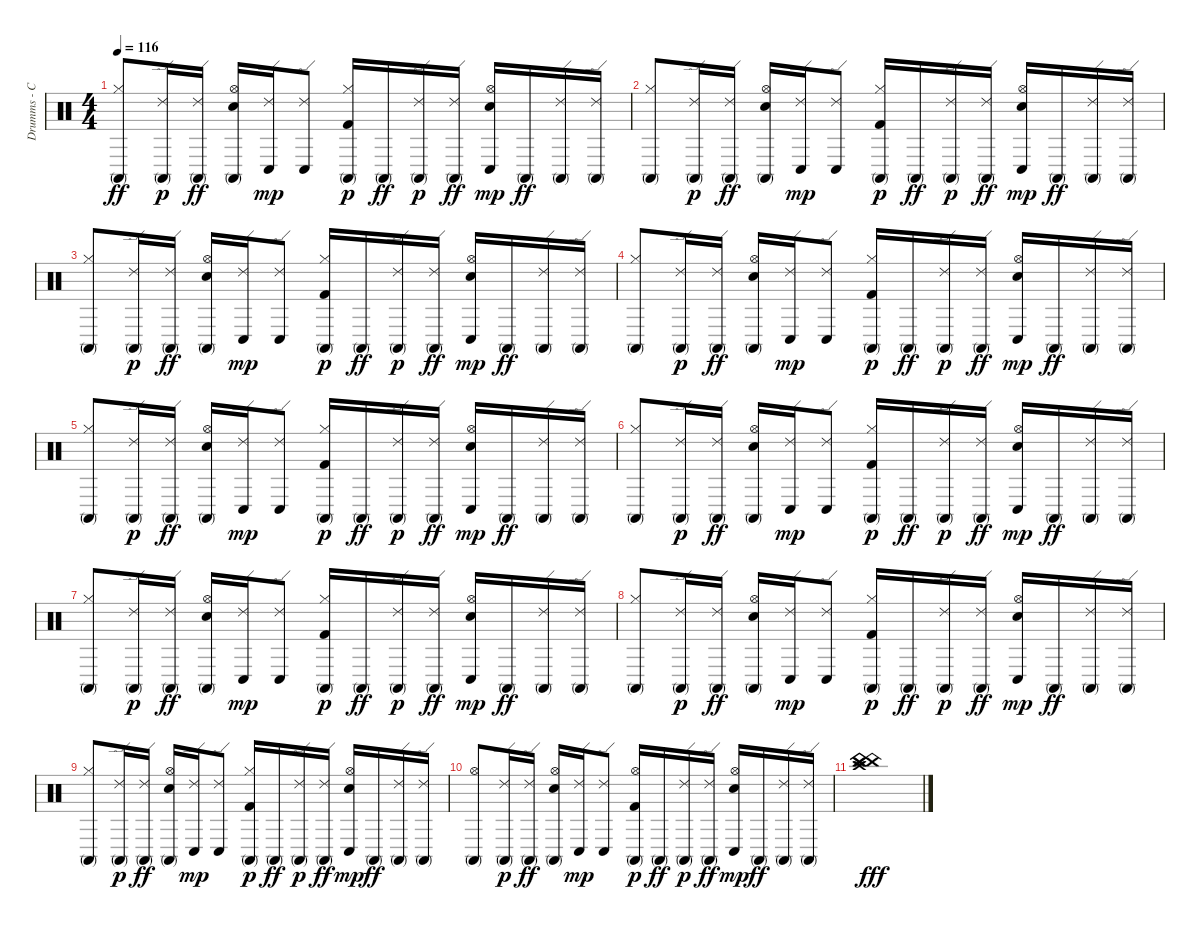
\track ("Drumms - Conga" "Drumms - C") {instrument percussion}
\staff {score}
\articulation defaults
\ts (4 4)
\tempo 116
\clef neutral
\ks c
("Conga high (mute)" "Hi-Hat (closed)").8{dy ff} ("Conga high (mute)" "Ride (edge) 2").16{dy p} ("Conga high (mute)" "Ride (edge) 2").16{dy ff} ("Conga high (mute)" "Snare (hit) 2" "Hi-Hat (open)").16 ("Conga low (hit)" "Ride (edge) 2").16{dy mp} ("Conga low (hit)" "Ride (edge) 2").8 ("Conga high (mute)" "Kick (hit) 2" "Hi-Hat (closed)").16{dy p} "Conga high (mute)".16{dy ff} ("Conga high (mute)" "Ride (edge) 2").16{dy p} ("Conga high (mute)" "Ride (edge) 2").16{dy ff} ("Conga low (hit)" "Snare (hit) 2" "Hi-Hat (open)").16{dy mp} "Conga high (mute)".16{dy ff} ("Conga high (mute)" "Ride (edge) 2").16 ("Conga high (mute)" "Ride (edge) 2").16 |
("Conga high (mute)" "Hi-Hat (closed)").8 ("Conga high (mute)" "Ride (edge) 2").16{dy p} ("Conga high (mute)" "Ride (edge) 2").16{dy ff} ("Conga high (mute)" "Snare (hit) 2" "Hi-Hat (open)").16 ("Conga low (hit)" "Ride (edge) 2").16{dy mp} ("Conga low (hit)" "Ride (edge) 2").8 ("Conga high (mute)" "Kick (hit) 2" "Hi-Hat (closed)").16{dy p} "Conga high (mute)".16{dy ff} ("Conga high (mute)" "Ride (edge) 2").16{dy p} ("Conga high (mute)" "Ride (edge) 2").16{dy ff} ("Conga low (hit)" "Snare (hit) 2" "Hi-Hat (open)").16{dy mp} "Conga high (mute)".16{dy ff} ("Conga high (mute)" "Ride (edge) 2").16 ("Conga high (mute)" "Ride (edge) 2").16 |
("Conga high (mute)" "Hi-Hat (closed)").8 ("Conga high (mute)" "Ride (edge) 2").16{dy p} ("Conga high (mute)" "Ride (edge) 2").16{dy ff} ("Conga high (mute)" "Snare (hit) 2" "Hi-Hat (open)").16 ("Conga low (hit)" "Ride (edge) 2").16{dy mp} ("Conga low (hit)" "Ride (edge) 2").8 ("Conga high (mute)" "Kick (hit) 2" "Hi-Hat (closed)").16{dy p} "Conga high (mute)".16{dy ff} ("Conga high (mute)" "Ride (edge) 2").16{dy p} ("Conga high (mute)" "Ride (edge) 2").16{dy ff} ("Conga low (hit)" "Snare (hit) 2" "Hi-Hat (open)").16{dy mp} "Conga high (mute)".16{dy ff} ("Conga high (mute)" "Ride (edge) 2").16 ("Conga high (mute)" "Ride (edge) 2").16 |
("Conga high (mute)" "Hi-Hat (closed)").8 ("Conga high (mute)" "Ride (edge) 2").16{dy p} ("Conga high (mute)" "Ride (edge) 2").16{dy ff} ("Conga high (mute)" "Snare (hit) 2" "Hi-Hat (open)").16 ("Conga low (hit)" "Ride (edge) 2").16{dy mp} ("Conga low (hit)" "Ride (edge) 2").8 ("Conga high (mute)" "Kick (hit) 2" "Hi-Hat (closed)").16{dy p} "Conga high (mute)".16{dy ff} ("Conga high (mute)" "Ride (edge) 2").16{dy p} ("Conga high (mute)" "Ride (edge) 2").16{dy ff} ("Conga low (hit)" "Snare (hit) 2" "Hi-Hat (open)").16{dy mp} "Conga high (mute)".16{dy ff} ("Conga high (mute)" "Ride (edge) 2").16 ("Conga high (mute)" "Ride (edge) 2").16 |
("Conga high (mute)" "Hi-Hat (closed)").8 ("Conga high (mute)" "Ride (edge) 2").16{dy p} ("Conga high (mute)" "Ride (edge) 2").16{dy ff} ("Conga high (mute)" "Snare (hit) 2" "Hi-Hat (open)").16 ("Conga low (hit)" "Ride (edge) 2").16{dy mp} ("Conga low (hit)" "Ride (edge) 2").8 ("Conga high (mute)" "Kick (hit) 2" "Hi-Hat (closed)").16{dy p} "Conga high (mute)".16{dy ff} ("Conga high (mute)" "Ride (edge) 2").16{dy p} ("Conga high (mute)" "Ride (edge) 2").16{dy ff} ("Conga low (hit)" "Snare (hit) 2" "Hi-Hat (open)").16{dy mp} "Conga high (mute)".16{dy ff} ("Conga high (mute)" "Ride (edge) 2").16 ("Conga high (mute)" "Ride (edge) 2").16 |
("Conga high (mute)" "Hi-Hat (closed)").8 ("Conga high (mute)" "Ride (edge) 2").16{dy p} ("Conga high (mute)" "Ride (edge) 2").16{dy ff} ("Conga high (mute)" "Snare (hit) 2" "Hi-Hat (open)").16 ("Conga low (hit)" "Ride (edge) 2").16{dy mp} ("Conga low (hit)" "Ride (edge) 2").8 ("Conga high (mute)" "Kick (hit) 2" "Hi-Hat (closed)").16{dy p} "Conga high (mute)".16{dy ff} ("Conga high (mute)" "Ride (edge) 2").16{dy p} ("Conga high (mute)" "Ride (edge) 2").16{dy ff} ("Conga low (hit)" "Snare (hit) 2" "Hi-Hat (open)").16{dy mp} "Conga high (mute)".16{dy ff} ("Conga high (mute)" "Ride (edge) 2").16 ("Conga high (mute)" "Ride (edge) 2").16 |
("Conga high (mute)" "Hi-Hat (closed)").8 ("Conga high (mute)" "Ride (edge) 2").16{dy p} ("Conga high (mute)" "Ride (edge) 2").16{dy ff} ("Conga high (mute)" "Snare (hit) 2" "Hi-Hat (open)").16 ("Conga low (hit)" "Ride (edge) 2").16{dy mp} ("Conga low (hit)" "Ride (edge) 2").8 ("Conga high (mute)" "Kick (hit) 2" "Hi-Hat (closed)").16{dy p} "Conga high (mute)".16{dy ff} ("Conga high (mute)" "Ride (edge) 2").16{dy p} ("Conga high (mute)" "Ride (edge) 2").16{dy ff} ("Conga low (hit)" "Snare (hit) 2" "Hi-Hat (open)").16{dy mp} "Conga high (mute)".16{dy ff} ("Conga high (mute)" "Ride (edge) 2").16 ("Conga high (mute)" "Ride (edge) 2").16 |
("Conga high (mute)" "Hi-Hat (closed)").8 ("Conga high (mute)" "Ride (edge) 2").16{dy p} ("Conga high (mute)" "Ride (edge) 2").16{dy ff} ("Conga high (mute)" "Snare (hit) 2" "Hi-Hat (open)").16 ("Conga low (hit)" "Ride (edge) 2").16{dy mp} ("Conga low (hit)" "Ride (edge) 2").8 ("Conga high (mute)" "Kick (hit) 2" "Hi-Hat (closed)").16{dy p} "Conga high (mute)".16{dy ff} ("Conga high (mute)" "Ride (edge) 2").16{dy p} ("Conga high (mute)" "Ride (edge) 2").16{dy ff} ("Conga low (hit)" "Snare (hit) 2" "Hi-Hat (open)").16{dy mp} "Conga high (mute)".16{dy ff} ("Conga high (mute)" "Ride (edge) 2").16 ("Conga high (mute)" "Ride (edge) 2").16 |
\section ("" "")
("Conga high (mute)" "Hi-Hat (closed)").8 ("Conga high (mute)" "Ride (edge) 2").16{dy p} ("Conga high (mute)" "Ride (edge) 2").16{dy ff} ("Conga high (mute)" "Snare (hit) 2" "Hi-Hat (open)").16 ("Conga low (hit)" "Ride (edge) 2").16{dy mp} ("Conga low (hit)" "Ride (edge) 2").8 ("Conga high (mute)" "Kick (hit) 2" "Hi-Hat (closed)").16{dy p} "Conga high (mute)".16{dy ff} ("Conga high (mute)" "Ride (edge) 2").16{dy p} ("Conga high (mute)" "Ride (edge) 2").16{dy ff} ("Conga low (hit)" "Snare (hit) 2" "Hi-Hat (open)").16{dy mp} "Conga high (mute)".16{dy ff} ("Conga high (mute)" "Ride (edge) 2").16 ("Conga high (mute)" "Ride (edge) 2").16 |
("Conga high (mute)" "Hi-Hat (open)").8 ("Conga high (mute)" "Ride (edge) 2").16{dy p} ("Conga high (mute)" "Ride (edge) 2").16{dy ff} ("Conga high (mute)" "Snare (hit) 2" "Hi-Hat (open)").16 ("Conga low (hit)" "Ride (edge) 2").16{dy mp} ("Conga low (hit)" "Ride (edge) 2").8 ("Conga high (mute)" "Hi-Hat (open)" "Kick (hit) 2").16{dy p} "Conga high (mute)".16{dy ff} ("Conga high (mute)" "Ride (edge) 2").16{dy p} ("Conga high (mute)" "Ride (edge) 2").16{dy ff} ("Conga low (hit)" "Snare (hit) 2" "Hi-Hat (open)").16{dy mp} "Conga high (mute)".16{dy ff} ("Conga high (mute)" "Ride (edge) 2").16 ("Conga high (mute)" "Ride (edge) 2").16 |
("China (hit)" "Crash high (hit)" "China (hit)" "China (hit)").1{dy fff}
